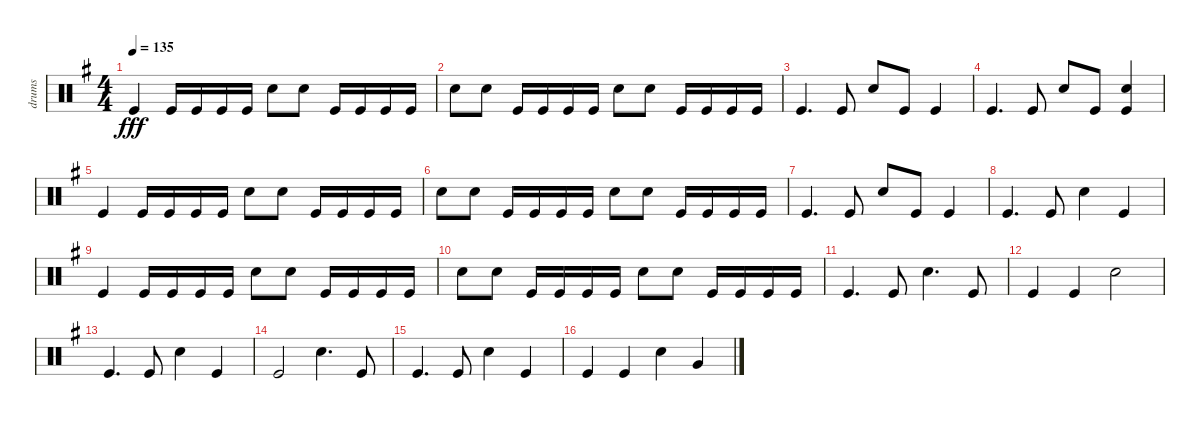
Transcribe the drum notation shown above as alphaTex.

\track ("drums" "drums") {instrument percussion}
\staff {score}
\articulation defaults
\ts (4 4)
\tempo 135
\clef neutral
\ks eminor "Kick (hit)".4{dy fff} "Kick (hit)".16 "Kick (hit)".16 "Kick (hit)".16 "Kick (hit)".16 "Electric Snare (hit)".8 "Electric Snare (hit)".8 "Kick (hit)".16 "Kick (hit)".16 "Kick (hit)".16 "Kick (hit)".16
|
"Electric Snare (hit)".8 "Electric Snare (hit)".8 "Kick (hit)".16 "Kick (hit)".16 "Kick (hit)".16 "Kick (hit)".16 "Electric Snare (hit)".8 "Electric Snare (hit)".8 "Kick (hit)".16 "Kick (hit)".16 "Kick (hit)".16 "Kick (hit)".16 |
"Kick (hit)".4{d} "Kick (hit)".8 "Electric Snare (hit)".8 "Kick (hit)".8 "Kick (hit)".4 |
"Kick (hit)".4{d} "Kick (hit)".8 "Electric Snare (hit)".8 "Kick (hit)".8 ("Electric Snare (hit)" "Kick (hit)").4 |
"Kick (hit)".4 "Kick (hit)".16 "Kick (hit)".16 "Kick (hit)".16 "Kick (hit)".16 "Electric Snare (hit)".8 "Electric Snare (hit)".8 "Kick (hit)".16 "Kick (hit)".16 "Kick (hit)".16 "Kick (hit)".16 |
"Electric Snare (hit)".8 "Electric Snare (hit)".8 "Kick (hit)".16 "Kick (hit)".16 "Kick (hit)".16 "Kick (hit)".16 "Electric Snare (hit)".8 "Electric Snare (hit)".8 "Kick (hit)".16 "Kick (hit)".16 "Kick (hit)".16 "Kick (hit)".16 |
"Kick (hit)".4{d} "Kick (hit)".8 "Electric Snare (hit)".8 "Kick (hit)".8 "Kick (hit)".4 |
"Kick (hit)".4{d} "Kick (hit)".8 "Electric Snare (hit)".4 "Kick (hit)".4 |
"Kick (hit)".4 "Kick (hit)".16 "Kick (hit)".16 "Kick (hit)".16 "Kick (hit)".16 "Electric Snare (hit)".8 "Electric Snare (hit)".8 "Kick (hit)".16 "Kick (hit)".16 "Kick (hit)".16 "Kick (hit)".16 |
"Electric Snare (hit)".8 "Electric Snare (hit)".8 "Kick (hit)".16 "Kick (hit)".16 "Kick (hit)".16 "Kick (hit)".16 "Electric Snare (hit)".8 "Electric Snare (hit)".8 "Kick (hit)".16 "Kick (hit)".16 "Kick (hit)".16 "Kick (hit)".16 |
"Kick (hit)".4{d} "Kick (hit)".8 "Electric Snare (hit)".4{d} "Kick (hit)".8 |
"Kick (hit)".4 "Kick (hit)".4 "Electric Snare (hit)".2 |
"Kick (hit)".4{d} "Kick (hit)".8 "Electric Snare (hit)".4 "Kick (hit)".4 |
"Kick (hit)".2 "Electric Snare (hit)".4{d} "Kick (hit)".8 |
"Kick (hit)".4{d} "Kick (hit)".8 "Electric Snare (hit)".4 "Kick (hit)".4 |
"Kick (hit)".4 "Kick (hit)".4 "Electric Snare (hit)".4 "Very Low Tom (hit)".4
